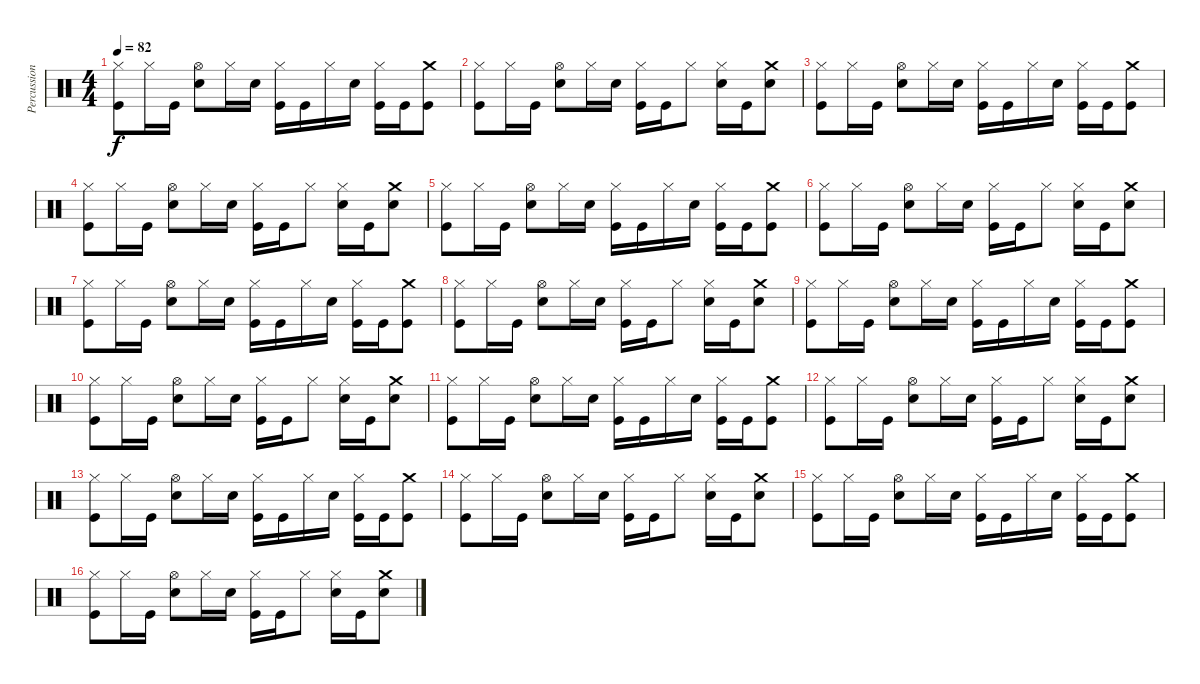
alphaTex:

\track ("Percussion" "Percussion") {instrument percussion}
\staff {score}
\articulation defaults
\ts (4 4)
\tempo 82
\clef neutral
\ks c
("Hi-Hat (closed)" "Kick (hit)").8{dy f} "Hi-Hat (closed)".16 "Kick (hit)".16 ("Hi-Hat (open)" "Snare (hit) 2").8 "Hi-Hat (closed)".16 "Snare (hit) 2".16 ("Hi-Hat (closed)" "Kick (hit)").16 "Kick (hit)".16 "Hi-Hat (closed)".16 "Snare (hit) 2".16 ("Hi-Hat (closed)" "Kick (hit)").16 "Kick (hit)".16 ("Crash medium (hit)" "Kick (hit)").8 |
("Hi-Hat (closed)" "Kick (hit)").8 "Hi-Hat (closed)".16 "Kick (hit)".16 ("Hi-Hat (open)" "Snare (hit) 2").8 "Hi-Hat (closed)".16 "Snare (hit) 2".16 ("Hi-Hat (closed)" "Kick (hit)").16 "Kick (hit)".16 "Hi-Hat (closed)".8 ("Hi-Hat (closed)" "Snare (hit) 2").16 "Kick (hit)".16 ("Crash medium (hit)" "Snare (hit) 2").8 |
("Hi-Hat (closed)" "Kick (hit)").8 "Hi-Hat (closed)".16 "Kick (hit)".16 ("Hi-Hat (open)" "Snare (hit) 2").8 "Hi-Hat (closed)".16 "Snare (hit) 2".16 ("Hi-Hat (closed)" "Kick (hit)").16 "Kick (hit)".16 "Hi-Hat (closed)".16 "Snare (hit) 2".16 ("Hi-Hat (closed)" "Kick (hit)").16 "Kick (hit)".16 ("Crash medium (hit)" "Kick (hit)").8 |
("Hi-Hat (closed)" "Kick (hit)").8 "Hi-Hat (closed)".16 "Kick (hit)".16 ("Hi-Hat (open)" "Snare (hit) 2").8 "Hi-Hat (closed)".16 "Snare (hit) 2".16 ("Hi-Hat (closed)" "Kick (hit)").16 "Kick (hit)".16 "Hi-Hat (closed)".8 ("Hi-Hat (closed)" "Snare (hit) 2").16 "Kick (hit)".16 ("Crash medium (hit)" "Snare (hit) 2").8 |
("Hi-Hat (closed)" "Kick (hit)").8 "Hi-Hat (closed)".16 "Kick (hit)".16 ("Hi-Hat (open)" "Snare (hit) 2").8 "Hi-Hat (closed)".16 "Snare (hit) 2".16 ("Hi-Hat (closed)" "Kick (hit)").16 "Kick (hit)".16 "Hi-Hat (closed)".16 "Snare (hit) 2".16 ("Hi-Hat (closed)" "Kick (hit)").16 "Kick (hit)".16 ("Crash medium (hit)" "Kick (hit)").8 |
("Hi-Hat (closed)" "Kick (hit)").8 "Hi-Hat (closed)".16 "Kick (hit)".16 ("Hi-Hat (open)" "Snare (hit) 2").8 "Hi-Hat (closed)".16 "Snare (hit) 2".16 ("Hi-Hat (closed)" "Kick (hit)").16 "Kick (hit)".16 "Hi-Hat (closed)".8 ("Hi-Hat (closed)" "Snare (hit) 2").16 "Kick (hit)".16 ("Crash medium (hit)" "Snare (hit) 2").8 |
("Hi-Hat (closed)" "Kick (hit)").8 "Hi-Hat (closed)".16 "Kick (hit)".16 ("Hi-Hat (open)" "Snare (hit) 2").8 "Hi-Hat (closed)".16 "Snare (hit) 2".16 ("Hi-Hat (closed)" "Kick (hit)").16 "Kick (hit)".16 "Hi-Hat (closed)".16 "Snare (hit) 2".16 ("Hi-Hat (closed)" "Kick (hit)").16 "Kick (hit)".16 ("Crash medium (hit)" "Kick (hit)").8 |
("Hi-Hat (closed)" "Kick (hit)").8 "Hi-Hat (closed)".16 "Kick (hit)".16 ("Hi-Hat (open)" "Snare (hit) 2").8 "Hi-Hat (closed)".16 "Snare (hit) 2".16 ("Hi-Hat (closed)" "Kick (hit)").16 "Kick (hit)".16 "Hi-Hat (closed)".8 ("Hi-Hat (closed)" "Snare (hit) 2").16 "Kick (hit)".16 ("Crash medium (hit)" "Snare (hit) 2").8 |
("Hi-Hat (closed)" "Kick (hit)").8 "Hi-Hat (closed)".16 "Kick (hit)".16 ("Hi-Hat (open)" "Snare (hit) 2").8 "Hi-Hat (closed)".16 "Snare (hit) 2".16 ("Hi-Hat (closed)" "Kick (hit)").16 "Kick (hit)".16 "Hi-Hat (closed)".16 "Snare (hit) 2".16 ("Hi-Hat (closed)" "Kick (hit)").16 "Kick (hit)".16 ("Crash medium (hit)" "Kick (hit)").8 |
("Hi-Hat (closed)" "Kick (hit)").8 "Hi-Hat (closed)".16 "Kick (hit)".16 ("Hi-Hat (open)" "Snare (hit) 2").8 "Hi-Hat (closed)".16 "Snare (hit) 2".16 ("Hi-Hat (closed)" "Kick (hit)").16 "Kick (hit)".16 "Hi-Hat (closed)".8 ("Hi-Hat (closed)" "Snare (hit) 2").16 "Kick (hit)".16 ("Crash medium (hit)" "Snare (hit) 2").8 |
("Hi-Hat (closed)" "Kick (hit)").8 "Hi-Hat (closed)".16 "Kick (hit)".16 ("Hi-Hat (open)" "Snare (hit) 2").8 "Hi-Hat (closed)".16 "Snare (hit) 2".16 ("Hi-Hat (closed)" "Kick (hit)").16 "Kick (hit)".16 "Hi-Hat (closed)".16 "Snare (hit) 2".16 ("Hi-Hat (closed)" "Kick (hit)").16 "Kick (hit)".16 ("Crash medium (hit)" "Kick (hit)").8 |
("Hi-Hat (closed)" "Kick (hit)").8 "Hi-Hat (closed)".16 "Kick (hit)".16 ("Hi-Hat (open)" "Snare (hit) 2").8 "Hi-Hat (closed)".16 "Snare (hit) 2".16 ("Hi-Hat (closed)" "Kick (hit)").16 "Kick (hit)".16 "Hi-Hat (closed)".8 ("Hi-Hat (closed)" "Snare (hit) 2").16 "Kick (hit)".16 ("Crash medium (hit)" "Snare (hit) 2").8 |
("Hi-Hat (closed)" "Kick (hit)").8 "Hi-Hat (closed)".16 "Kick (hit)".16 ("Hi-Hat (open)" "Snare (hit) 2").8 "Hi-Hat (closed)".16 "Snare (hit) 2".16 ("Hi-Hat (closed)" "Kick (hit)").16 "Kick (hit)".16 "Hi-Hat (closed)".16 "Snare (hit) 2".16 ("Hi-Hat (closed)" "Kick (hit)").16 "Kick (hit)".16 ("Crash medium (hit)" "Kick (hit)").8 |
("Hi-Hat (closed)" "Kick (hit)").8 "Hi-Hat (closed)".16 "Kick (hit)".16 ("Hi-Hat (open)" "Snare (hit) 2").8 "Hi-Hat (closed)".16 "Snare (hit) 2".16 ("Hi-Hat (closed)" "Kick (hit)").16 "Kick (hit)".16 "Hi-Hat (closed)".8 ("Hi-Hat (closed)" "Snare (hit) 2").16 "Kick (hit)".16 ("Crash medium (hit)" "Snare (hit) 2").8 |
("Hi-Hat (closed)" "Kick (hit)").8 "Hi-Hat (closed)".16 "Kick (hit)".16 ("Hi-Hat (open)" "Snare (hit) 2").8 "Hi-Hat (closed)".16 "Snare (hit) 2".16 ("Hi-Hat (closed)" "Kick (hit)").16 "Kick (hit)".16 "Hi-Hat (closed)".16 "Snare (hit) 2".16 ("Hi-Hat (closed)" "Kick (hit)").16 "Kick (hit)".16 ("Crash medium (hit)" "Kick (hit)").8 |
("Hi-Hat (closed)" "Kick (hit)").8 "Hi-Hat (closed)".16 "Kick (hit)".16 ("Hi-Hat (open)" "Snare (hit) 2").8 "Hi-Hat (closed)".16 "Snare (hit) 2".16 ("Hi-Hat (closed)" "Kick (hit)").16 "Kick (hit)".16 "Hi-Hat (closed)".8 ("Hi-Hat (closed)" "Snare (hit) 2").16 "Kick (hit)".16 ("Crash medium (hit)" "Snare (hit) 2").8
